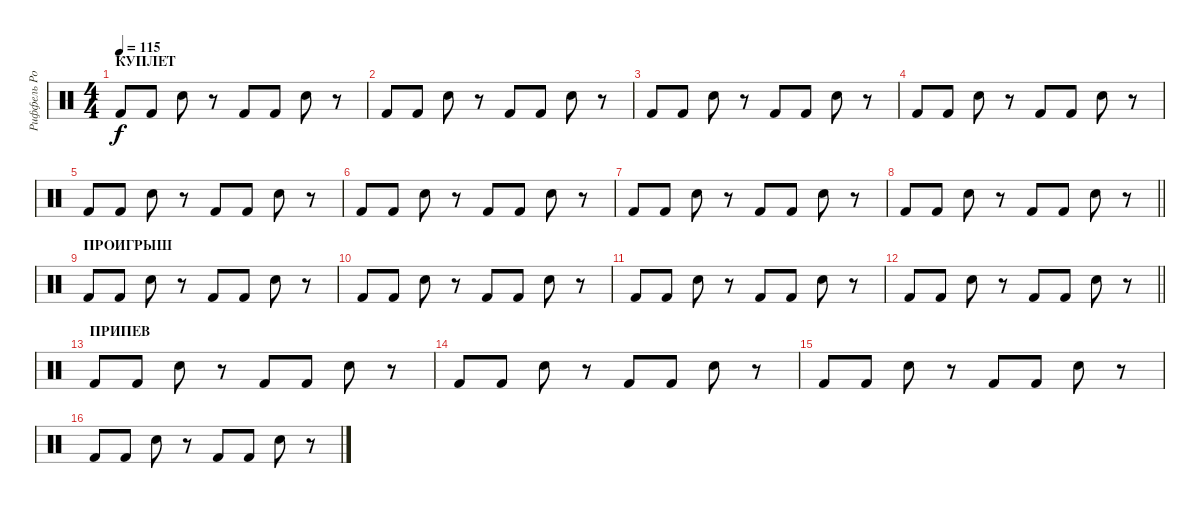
\track ("Риффель Роман (главные)" "Риффель Ро") {instrument percussion}
\staff {score}
\articulation defaults
\ts (4 4)
\section ("" "КУПЛЕТ")
\tempo 115
\clef neutral
\ks c "Kick (hit) 2".8{dy f} "Kick (hit) 2".8 "Electric Snare (hit)".8
r.8 "Kick (hit) 2".8 "Kick (hit) 2".8 "Electric Snare (hit)".8 r.8 |
"Kick (hit) 2".8 "Kick (hit) 2".8 "Electric Snare (hit)".8 r.8 "Kick (hit) 2".8 "Kick (hit) 2".8 "Electric Snare (hit)".8 r.8 |
"Kick (hit) 2".8 "Kick (hit) 2".8 "Electric Snare (hit)".8 r.8 "Kick (hit) 2".8 "Kick (hit) 2".8 "Electric Snare (hit)".8 r.8 |
"Kick (hit) 2".8 "Kick (hit) 2".8 "Electric Snare (hit)".8 r.8 "Kick (hit) 2".8 "Kick (hit) 2".8 "Electric Snare (hit)".8 r.8 |
"Kick (hit) 2".8 "Kick (hit) 2".8 "Electric Snare (hit)".8 r.8 "Kick (hit) 2".8 "Kick (hit) 2".8 "Electric Snare (hit)".8 r.8 |
"Kick (hit) 2".8 "Kick (hit) 2".8 "Electric Snare (hit)".8 r.8 "Kick (hit) 2".8 "Kick (hit) 2".8 "Electric Snare (hit)".8 r.8 |
"Kick (hit) 2".8 "Kick (hit) 2".8 "Electric Snare (hit)".8 r.8 "Kick (hit) 2".8 "Kick (hit) 2".8 "Electric Snare (hit)".8 r.8 |
\barLineRight lightlight "Kick (hit) 2".8 "Kick (hit) 2".8 "Electric Snare (hit)".8
r.8 "Kick (hit) 2".8 "Kick (hit) 2".8 "Electric Snare (hit)".8 r.8 |
\section ("" "ПРОИГРЫШ")
"Kick (hit) 2".8 "Kick (hit) 2".8 "Electric Snare (hit)".8 r.8 "Kick (hit) 2".8 "Kick (hit) 2".8 "Electric Snare (hit)".8 r.8 |
"Kick (hit) 2".8 "Kick (hit) 2".8 "Electric Snare (hit)".8 r.8 "Kick (hit) 2".8 "Kick (hit) 2".8 "Electric Snare (hit)".8 r.8 |
"Kick (hit) 2".8 "Kick (hit) 2".8 "Electric Snare (hit)".8 r.8 "Kick (hit) 2".8 "Kick (hit) 2".8 "Electric Snare (hit)".8 r.8 |
\barLineRight lightlight "Kick (hit) 2".8 "Kick (hit) 2".8 "Electric Snare (hit)".8
r.8 "Kick (hit) 2".8 "Kick (hit) 2".8 "Electric Snare (hit)".8 r.8 |
\section ("" "ПРИПЕВ")
"Kick (hit) 2".8 "Kick (hit) 2".8 "Electric Snare (hit)".8 r.8 "Kick (hit) 2".8 "Kick (hit) 2".8 "Electric Snare (hit)".8 r.8 |
"Kick (hit) 2".8 "Kick (hit) 2".8 "Electric Snare (hit)".8 r.8 "Kick (hit) 2".8 "Kick (hit) 2".8 "Electric Snare (hit)".8 r.8 |
"Kick (hit) 2".8 "Kick (hit) 2".8 "Electric Snare (hit)".8 r.8 "Kick (hit) 2".8 "Kick (hit) 2".8 "Electric Snare (hit)".8 r.8 |
"Kick (hit) 2".8 "Kick (hit) 2".8 "Electric Snare (hit)".8 r.8 "Kick (hit) 2".8 "Kick (hit) 2".8 "Electric Snare (hit)".8 r.8
